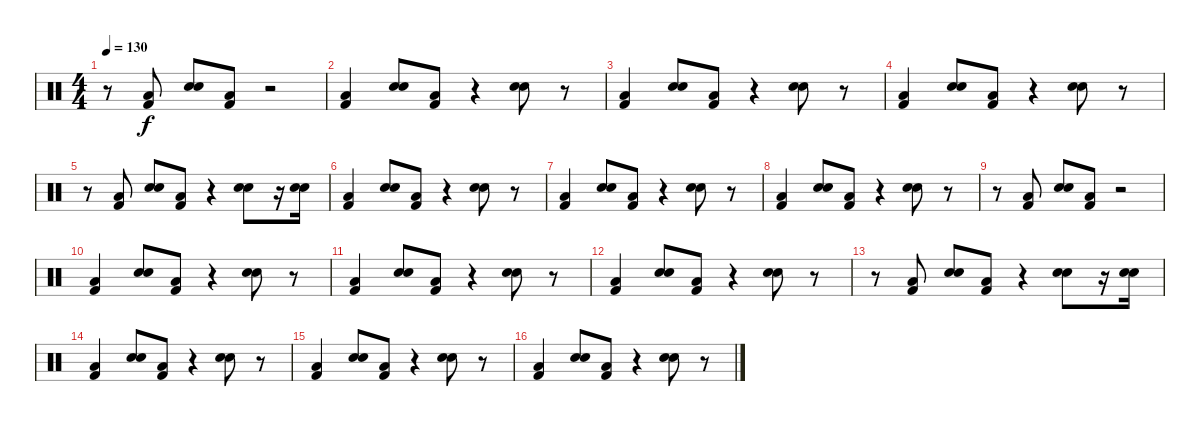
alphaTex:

\track "" {instrument percussion}
\staff {score}
\articulation defaults
\ts (4 4)
\tempo 130
\clef neutral
\ks c
r.8{dy f} ("Kick (hit) 2" "Low Floor Tom (hit)").8 ("Snare (hit) 2" "Hand Clap (hit)").8 ("Kick (hit) 2" "Low Floor Tom (hit)").8 r.2 |
("Kick (hit) 2" "Low Floor Tom (hit)").4 ("Snare (hit) 2" "Hand Clap (hit)").8 ("Kick (hit) 2" "Low Floor Tom (hit)").8 r.4 ("Snare (hit) 2" "Hand Clap (hit)").8 r.8 |
("Kick (hit) 2" "Low Floor Tom (hit)").4 ("Snare (hit) 2" "Hand Clap (hit)").8 ("Kick (hit) 2" "Low Floor Tom (hit)").8 r.4 ("Snare (hit) 2" "Hand Clap (hit)").8 r.8 |
("Kick (hit) 2" "Low Floor Tom (hit)").4 ("Snare (hit) 2" "Hand Clap (hit)").8 ("Kick (hit) 2" "Low Floor Tom (hit)").8 r.4 ("Snare (hit) 2" "Hand Clap (hit)").8 r.8 |
r.8 ("Kick (hit) 2" "Low Floor Tom (hit)").8 ("Snare (hit) 2" "Hand Clap (hit)").8 ("Kick (hit) 2" "Low Floor Tom (hit)").8 r.4 ("Snare (hit) 2" "Hand Clap (hit)").8 r.16 ("Snare (hit) 2" "Hand Clap (hit)").16 |
("Kick (hit) 2" "Low Floor Tom (hit)").4 ("Snare (hit) 2" "Hand Clap (hit)").8 ("Kick (hit) 2" "Low Floor Tom (hit)").8 r.4 ("Snare (hit) 2" "Hand Clap (hit)").8 r.8 |
("Kick (hit) 2" "Low Floor Tom (hit)").4 ("Snare (hit) 2" "Hand Clap (hit)").8 ("Kick (hit) 2" "Low Floor Tom (hit)").8 r.4 ("Snare (hit) 2" "Hand Clap (hit)").8 r.8 |
("Kick (hit) 2" "Low Floor Tom (hit)").4 ("Snare (hit) 2" "Hand Clap (hit)").8 ("Kick (hit) 2" "Low Floor Tom (hit)").8 r.4 ("Snare (hit) 2" "Hand Clap (hit)").8 r.8 |
r.8 ("Kick (hit) 2" "Low Floor Tom (hit)").8 ("Snare (hit) 2" "Hand Clap (hit)").8 ("Kick (hit) 2" "Low Floor Tom (hit)").8 r.2 |
("Kick (hit) 2" "Low Floor Tom (hit)").4 ("Snare (hit) 2" "Hand Clap (hit)").8 ("Kick (hit) 2" "Low Floor Tom (hit)").8 r.4 ("Snare (hit) 2" "Hand Clap (hit)").8 r.8 |
("Kick (hit) 2" "Low Floor Tom (hit)").4 ("Snare (hit) 2" "Hand Clap (hit)").8 ("Kick (hit) 2" "Low Floor Tom (hit)").8 r.4 ("Snare (hit) 2" "Hand Clap (hit)").8 r.8 |
("Kick (hit) 2" "Low Floor Tom (hit)").4 ("Snare (hit) 2" "Hand Clap (hit)").8 ("Kick (hit) 2" "Low Floor Tom (hit)").8 r.4 ("Snare (hit) 2" "Hand Clap (hit)").8 r.8 |
r.8 ("Kick (hit) 2" "Low Floor Tom (hit)").8 ("Snare (hit) 2" "Hand Clap (hit)").8 ("Kick (hit) 2" "Low Floor Tom (hit)").8 r.4 ("Snare (hit) 2" "Hand Clap (hit)").8 r.16 ("Snare (hit) 2" "Hand Clap (hit)").16 |
("Kick (hit) 2" "Low Floor Tom (hit)").4 ("Snare (hit) 2" "Hand Clap (hit)").8 ("Kick (hit) 2" "Low Floor Tom (hit)").8 r.4 ("Snare (hit) 2" "Hand Clap (hit)").8 r.8 |
("Kick (hit) 2" "Low Floor Tom (hit)").4 ("Snare (hit) 2" "Hand Clap (hit)").8 ("Kick (hit) 2" "Low Floor Tom (hit)").8 r.4 ("Snare (hit) 2" "Hand Clap (hit)").8 r.8 |
("Kick (hit) 2" "Low Floor Tom (hit)").4 ("Snare (hit) 2" "Hand Clap (hit)").8 ("Kick (hit) 2" "Low Floor Tom (hit)").8 r.4 ("Snare (hit) 2" "Hand Clap (hit)").8 r.8
